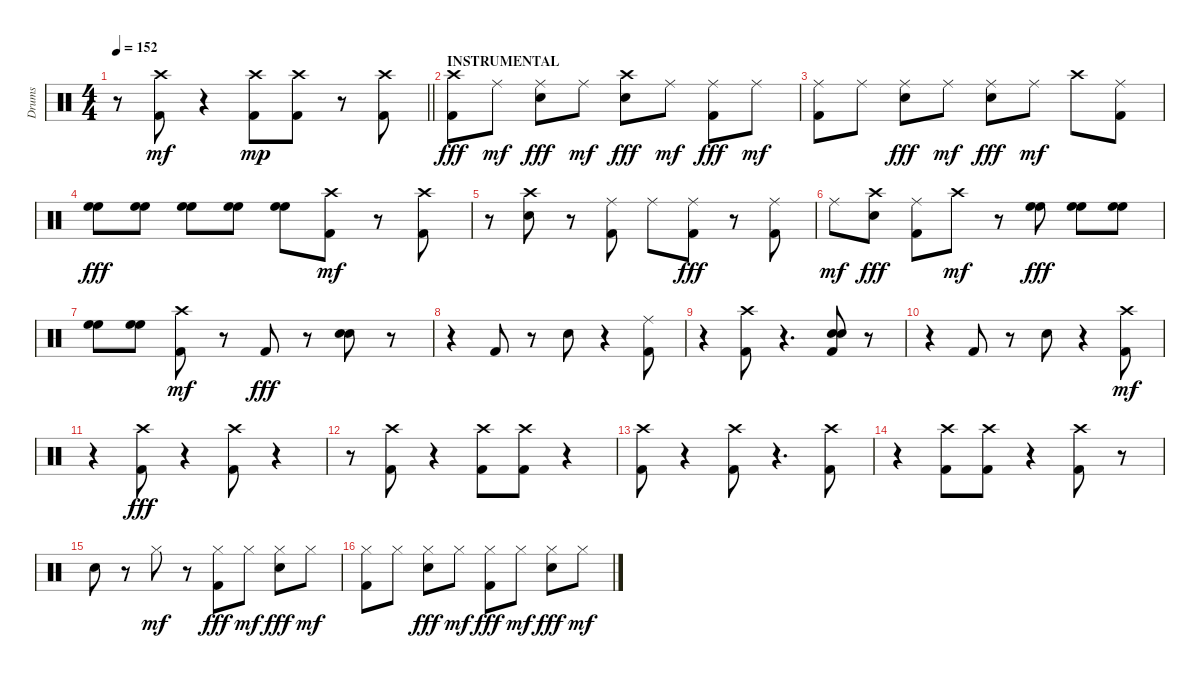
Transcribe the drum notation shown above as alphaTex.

\track ("Drums" "Drums") {instrument percussion}
\staff {score}
\articulation defaults
\ts (4 4)
\tempo 152
\clef neutral
\barLineRight lightlight
\ks c
r.8{dy mf} ("Kick (hit) 2" "Crash high (hit)").8 r.4 ("Kick (hit) 2" "Crash high (hit)").8{dy mp} ("Kick (hit) 2" "Crash high (hit)").8 r.8 ("Kick (hit) 2" "Crash high (hit)").8 |
\section ("" "INSTRUMENTAL")
("Crash high (hit)" "Kick (hit) 2").8{dy fff} "Ride (middle)".8{dy mf} ("Ride (middle)" "Electric Snare (hit)").8{dy fff} "Ride (middle)".8{dy mf} ("Crash high (hit)" "Electric Snare (hit)").8{dy fff} "Ride (middle)".8{dy mf} ("Ride (middle)" "Kick (hit) 2").8{dy fff} "Ride (middle)".8{dy mf} |
("Kick (hit) 2" "Ride (middle)").8 "Ride (middle)".8 ("Ride (middle)" "Electric Snare (hit)").8{dy fff} "Ride (middle)".8{dy mf} ("Ride (middle)" "Electric Snare (hit)").8{dy fff} "Ride (middle)".8{dy mf} "Crash high (hit)".8 ("Kick (hit) 2" "Ride (middle)").8 |
("High Floor Tom (hit)" "High Floor Tom (hit)").8{dy fff} ("High Floor Tom (hit)" "High Floor Tom (hit)").8 ("High Floor Tom (hit)" "High Floor Tom (hit)").8 ("High Floor Tom (hit)" "High Floor Tom (hit)").8 ("High Floor Tom (hit)" "High Floor Tom (hit)").8 ("Kick (hit) 2" "Crash high (hit)").8{dy mf} r.8 ("Kick (hit) 2" "Crash high (hit)").8 |
r.8 ("Electric Snare (hit)" "Crash high (hit)").8 r.8 ("Kick (hit) 2" "Ride (middle)").8 "Ride (middle)".8 ("Ride (middle)" "Kick (hit) 2").8{dy fff} r.8 ("Ride (middle)" "Kick (hit) 2").8 |
"Ride (middle)".8{dy mf} ("Crash high (hit)" "Electric Snare (hit)").8{dy fff} ("Ride (middle)" "Kick (hit) 2").8 "Crash high (hit)".8{dy mf} r.8 ("High Floor Tom (hit)" "High Floor Tom (hit)").8{dy fff} ("High Floor Tom (hit)" "High Floor Tom (hit)").8 ("High Floor Tom (hit)" "High Floor Tom (hit)").8 |
("High Floor Tom (hit)" "High Floor Tom (hit)").8 ("High Floor Tom (hit)" "High Floor Tom (hit)").8 ("Kick (hit) 2" "Crash high (hit)").8{dy mf} r.8 "Kick (hit) 2".8{dy fff} r.8 ("Electric Snare (hit)" "Electric Snare (hit)").8 r.8 |
r.4 "Kick (hit) 2".8 r.8 "Electric Snare (hit)".8 r.4 ("Ride (middle)" "Kick (hit) 2").8 |
r.4 ("Crash high (hit)" "Kick (hit) 2").8 r.4{d} ("Electric Snare (hit)" "Kick (hit) 2" "Electric Snare (hit)").8 r.8 |
r.4 "Kick (hit) 2".8 r.8 "Electric Snare (hit)".8 r.4 ("Kick (hit) 2" "Crash high (hit)").8{dy mf} |
r.4 ("Crash high (hit)" "Kick (hit) 2").8{dy fff} r.4 ("Crash high (hit)" "Kick (hit) 2").8 r.4 |
r.8 ("Crash high (hit)" "Kick (hit) 2").8 r.4 ("Crash high (hit)" "Kick (hit) 2").8 ("Crash high (hit)" "Kick (hit) 2").8 r.4 |
("Crash high (hit)" "Kick (hit) 2").8 r.4 ("Crash high (hit)" "Kick (hit) 2").8 r.4{d} ("Crash high (hit)" "Kick (hit) 2").8 |
r.4 ("Crash high (hit)" "Kick (hit) 2").8 ("Crash high (hit)" "Kick (hit) 2").8 r.4 ("Crash high (hit)" "Kick (hit) 2").8 r.8 |
"Electric Snare (hit)".8 r.8 "Hi-Hat (closed)".8{dy mf} r.8 ("Hi-Hat (closed)" "Kick (hit) 2").8{dy fff} "Hi-Hat (closed)".8{dy mf} ("Hi-Hat (closed)" "Electric Snare (hit)").8{dy fff} "Hi-Hat (closed)".8{dy mf} |
("Kick (hit) 2" "Hi-Hat (closed)").8 "Hi-Hat (closed)".8 ("Hi-Hat (closed)" "Electric Snare (hit)").8{dy fff} "Hi-Hat (closed)".8{dy mf} ("Hi-Hat (closed)" "Kick (hit) 2").8{dy fff} "Hi-Hat (closed)".8{dy mf} ("Hi-Hat (closed)" "Electric Snare (hit)").8{dy fff} "Hi-Hat (closed)".8{dy mf}
